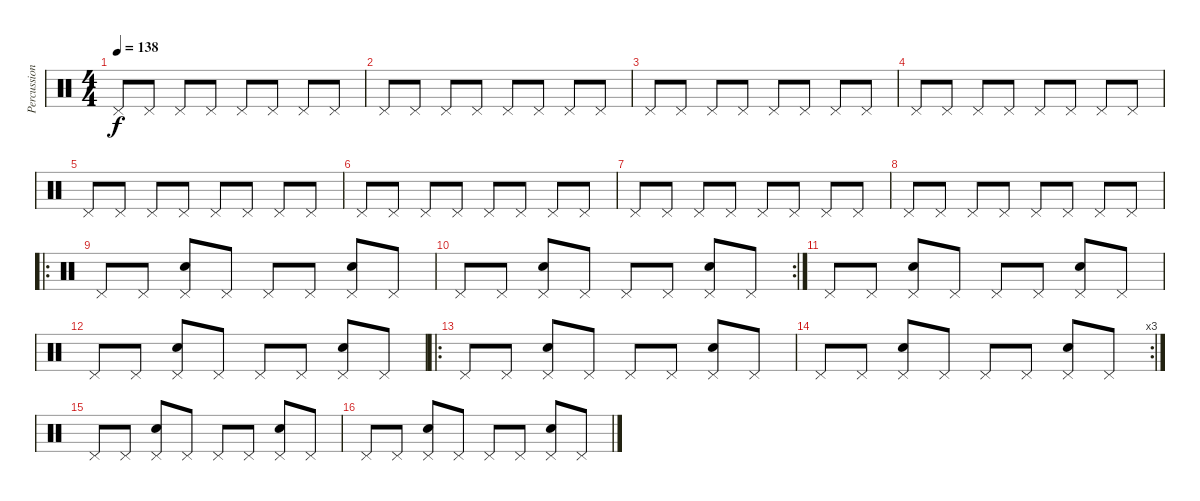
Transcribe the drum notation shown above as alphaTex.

\track ("Percussions" "Percussion") {instrument percussion}
\staff {score}
\articulation defaults
\ts (4 4)
\tempo 138
\clef neutral
\ks c "Pedal Hi-Hat (hit)".8{dy f} "Pedal Hi-Hat (hit)".8 "Pedal Hi-Hat (hit)".8 "Pedal Hi-Hat (hit)".8 "Pedal Hi-Hat (hit)".8 "Pedal Hi-Hat (hit)".8 "Pedal Hi-Hat (hit)".8 "Pedal Hi-Hat (hit)".8
|
"Pedal Hi-Hat (hit)".8 "Pedal Hi-Hat (hit)".8 "Pedal Hi-Hat (hit)".8 "Pedal Hi-Hat (hit)".8 "Pedal Hi-Hat (hit)".8 "Pedal Hi-Hat (hit)".8 "Pedal Hi-Hat (hit)".8 "Pedal Hi-Hat (hit)".8 |
"Pedal Hi-Hat (hit)".8 "Pedal Hi-Hat (hit)".8 "Pedal Hi-Hat (hit)".8 "Pedal Hi-Hat (hit)".8 "Pedal Hi-Hat (hit)".8 "Pedal Hi-Hat (hit)".8 "Pedal Hi-Hat (hit)".8 "Pedal Hi-Hat (hit)".8 |
"Pedal Hi-Hat (hit)".8 "Pedal Hi-Hat (hit)".8 "Pedal Hi-Hat (hit)".8 "Pedal Hi-Hat (hit)".8 "Pedal Hi-Hat (hit)".8 "Pedal Hi-Hat (hit)".8 "Pedal Hi-Hat (hit)".8 "Pedal Hi-Hat (hit)".8 |
"Pedal Hi-Hat (hit)".8 "Pedal Hi-Hat (hit)".8 "Pedal Hi-Hat (hit)".8 "Pedal Hi-Hat (hit)".8 "Pedal Hi-Hat (hit)".8 "Pedal Hi-Hat (hit)".8 "Pedal Hi-Hat (hit)".8 "Pedal Hi-Hat (hit)".8 |
"Pedal Hi-Hat (hit)".8 "Pedal Hi-Hat (hit)".8 "Pedal Hi-Hat (hit)".8 "Pedal Hi-Hat (hit)".8 "Pedal Hi-Hat (hit)".8 "Pedal Hi-Hat (hit)".8 "Pedal Hi-Hat (hit)".8 "Pedal Hi-Hat (hit)".8 |
"Pedal Hi-Hat (hit)".8 "Pedal Hi-Hat (hit)".8 "Pedal Hi-Hat (hit)".8 "Pedal Hi-Hat (hit)".8 "Pedal Hi-Hat (hit)".8 "Pedal Hi-Hat (hit)".8 "Pedal Hi-Hat (hit)".8 "Pedal Hi-Hat (hit)".8 |
"Pedal Hi-Hat (hit)".8 "Pedal Hi-Hat (hit)".8 "Pedal Hi-Hat (hit)".8 "Pedal Hi-Hat (hit)".8 "Pedal Hi-Hat (hit)".8 "Pedal Hi-Hat (hit)".8 "Pedal Hi-Hat (hit)".8 "Pedal Hi-Hat (hit)".8 |
\ro "Pedal Hi-Hat (hit)".8 "Pedal Hi-Hat (hit)".8
("Pedal Hi-Hat (hit)" "Snare (hit) 2").8 "Pedal Hi-Hat (hit)".8 "Pedal Hi-Hat (hit)".8 "Pedal Hi-Hat (hit)".8 ("Pedal Hi-Hat (hit)" "Snare (hit) 2").8 "Pedal Hi-Hat (hit)".8 |
\rc 2 "Pedal Hi-Hat (hit)".8 "Pedal Hi-Hat (hit)".8
("Pedal Hi-Hat (hit)" "Snare (hit) 2").8 "Pedal Hi-Hat (hit)".8 "Pedal Hi-Hat (hit)".8 "Pedal Hi-Hat (hit)".8 ("Pedal Hi-Hat (hit)" "Snare (hit) 2").8 "Pedal Hi-Hat (hit)".8 |
"Pedal Hi-Hat (hit)".8 "Pedal Hi-Hat (hit)".8 ("Pedal Hi-Hat (hit)" "Snare (hit) 2").8 "Pedal Hi-Hat (hit)".8 "Pedal Hi-Hat (hit)".8 "Pedal Hi-Hat (hit)".8 ("Pedal Hi-Hat (hit)" "Snare (hit) 2").8 "Pedal Hi-Hat (hit)".8 |
"Pedal Hi-Hat (hit)".8 "Pedal Hi-Hat (hit)".8 ("Pedal Hi-Hat (hit)" "Snare (hit) 2").8 "Pedal Hi-Hat (hit)".8 "Pedal Hi-Hat (hit)".8 "Pedal Hi-Hat (hit)".8 ("Pedal Hi-Hat (hit)" "Snare (hit) 2").8 "Pedal Hi-Hat (hit)".8 |
\ro "Pedal Hi-Hat (hit)".8 "Pedal Hi-Hat (hit)".8
("Pedal Hi-Hat (hit)" "Snare (hit) 2").8 "Pedal Hi-Hat (hit)".8 "Pedal Hi-Hat (hit)".8 "Pedal Hi-Hat (hit)".8 ("Pedal Hi-Hat (hit)" "Snare (hit) 2").8 "Pedal Hi-Hat (hit)".8 |
\rc 3 "Pedal Hi-Hat (hit)".8 "Pedal Hi-Hat (hit)".8
("Pedal Hi-Hat (hit)" "Snare (hit) 2").8 "Pedal Hi-Hat (hit)".8 "Pedal Hi-Hat (hit)".8 "Pedal Hi-Hat (hit)".8 ("Pedal Hi-Hat (hit)" "Snare (hit) 2").8 "Pedal Hi-Hat (hit)".8 |
"Pedal Hi-Hat (hit)".8 "Pedal Hi-Hat (hit)".8 ("Pedal Hi-Hat (hit)" "Snare (hit) 2").8 "Pedal Hi-Hat (hit)".8 "Pedal Hi-Hat (hit)".8 "Pedal Hi-Hat (hit)".8 ("Pedal Hi-Hat (hit)" "Snare (hit) 2").8 "Pedal Hi-Hat (hit)".8 |
"Pedal Hi-Hat (hit)".8 "Pedal Hi-Hat (hit)".8 ("Pedal Hi-Hat (hit)" "Snare (hit) 2").8 "Pedal Hi-Hat (hit)".8 "Pedal Hi-Hat (hit)".8 "Pedal Hi-Hat (hit)".8 ("Pedal Hi-Hat (hit)" "Snare (hit) 2").8 "Pedal Hi-Hat (hit)".8
